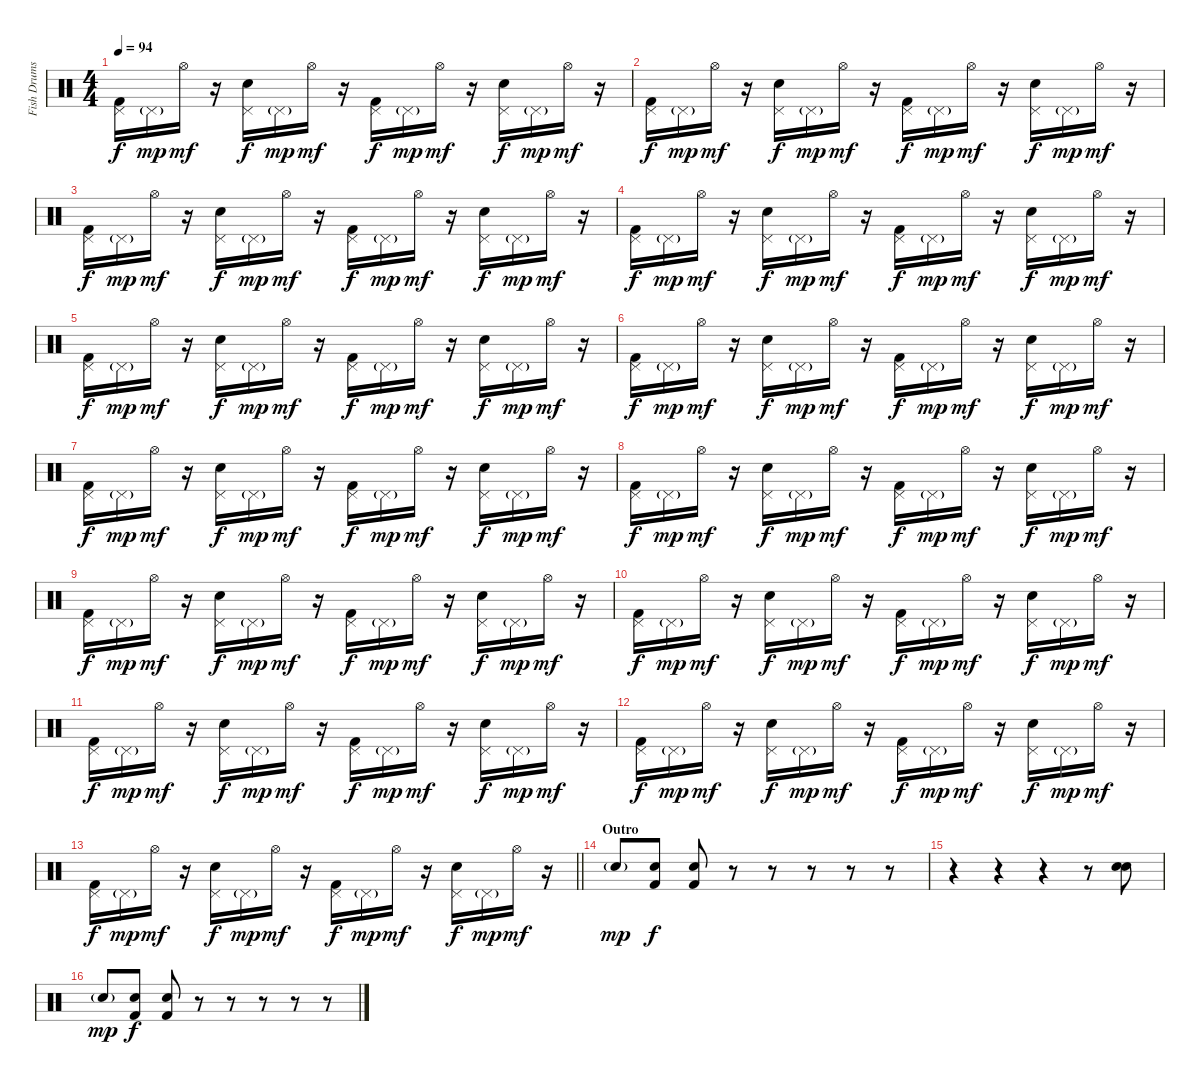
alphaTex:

\track ("Fish Drums" "Fish Drums") {instrument percussion}
\staff {score}
\articulation defaults
\ts (4 4)
\tempo 94
\clef neutral
\ks c
("Pedal Hi-Hat (hit)" "Kick (hit) 2").16{dy f} "Pedal Hi-Hat (hit)"{g}.16{dy mp} "Hi-Hat (open)".16{dy mf} r.16 ("Pedal Hi-Hat (hit)" "Snare (hit) 2").16{dy f} "Pedal Hi-Hat (hit)"{g}.16{dy mp} "Hi-Hat (open)".16{dy mf} r.16 ("Pedal Hi-Hat (hit)" "Kick (hit) 2").16{dy f} "Pedal Hi-Hat (hit)"{g}.16{dy mp} "Hi-Hat (open)".16{dy mf} r.16 ("Pedal Hi-Hat (hit)" "Snare (hit) 2").16{dy f} "Pedal Hi-Hat (hit)"{g}.16{dy mp} "Hi-Hat (open)".16{dy mf} r.16 |
("Pedal Hi-Hat (hit)" "Kick (hit) 2").16{dy f} "Pedal Hi-Hat (hit)"{g}.16{dy mp} "Hi-Hat (open)".16{dy mf} r.16 ("Pedal Hi-Hat (hit)" "Snare (hit) 2").16{dy f} "Pedal Hi-Hat (hit)"{g}.16{dy mp} "Hi-Hat (open)".16{dy mf} r.16 ("Pedal Hi-Hat (hit)" "Kick (hit) 2").16{dy f} "Pedal Hi-Hat (hit)"{g}.16{dy mp} "Hi-Hat (open)".16{dy mf} r.16 ("Pedal Hi-Hat (hit)" "Snare (hit) 2").16{dy f} "Pedal Hi-Hat (hit)"{g}.16{dy mp} "Hi-Hat (open)".16{dy mf} r.16 |
("Pedal Hi-Hat (hit)" "Kick (hit) 2").16{dy f} "Pedal Hi-Hat (hit)"{g}.16{dy mp} "Hi-Hat (open)".16{dy mf} r.16 ("Pedal Hi-Hat (hit)" "Snare (hit) 2").16{dy f} "Pedal Hi-Hat (hit)"{g}.16{dy mp} "Hi-Hat (open)".16{dy mf} r.16 ("Pedal Hi-Hat (hit)" "Kick (hit) 2").16{dy f} "Pedal Hi-Hat (hit)"{g}.16{dy mp} "Hi-Hat (open)".16{dy mf} r.16 ("Pedal Hi-Hat (hit)" "Snare (hit) 2").16{dy f} "Pedal Hi-Hat (hit)"{g}.16{dy mp} "Hi-Hat (open)".16{dy mf} r.16 |
("Pedal Hi-Hat (hit)" "Kick (hit) 2").16{dy f} "Pedal Hi-Hat (hit)"{g}.16{dy mp} "Hi-Hat (open)".16{dy mf} r.16 ("Pedal Hi-Hat (hit)" "Snare (hit) 2").16{dy f} "Pedal Hi-Hat (hit)"{g}.16{dy mp} "Hi-Hat (open)".16{dy mf} r.16 ("Pedal Hi-Hat (hit)" "Kick (hit) 2").16{dy f} "Pedal Hi-Hat (hit)"{g}.16{dy mp} "Hi-Hat (open)".16{dy mf} r.16 ("Pedal Hi-Hat (hit)" "Snare (hit) 2").16{dy f} "Pedal Hi-Hat (hit)"{g}.16{dy mp} "Hi-Hat (open)".16{dy mf} r.16 |
("Pedal Hi-Hat (hit)" "Kick (hit) 2").16{dy f} "Pedal Hi-Hat (hit)"{g}.16{dy mp} "Hi-Hat (open)".16{dy mf} r.16 ("Pedal Hi-Hat (hit)" "Snare (hit) 2").16{dy f} "Pedal Hi-Hat (hit)"{g}.16{dy mp} "Hi-Hat (open)".16{dy mf} r.16 ("Pedal Hi-Hat (hit)" "Kick (hit) 2").16{dy f} "Pedal Hi-Hat (hit)"{g}.16{dy mp} "Hi-Hat (open)".16{dy mf} r.16 ("Pedal Hi-Hat (hit)" "Snare (hit) 2").16{dy f} "Pedal Hi-Hat (hit)"{g}.16{dy mp} "Hi-Hat (open)".16{dy mf} r.16 |
("Pedal Hi-Hat (hit)" "Kick (hit) 2").16{dy f} "Pedal Hi-Hat (hit)"{g}.16{dy mp} "Hi-Hat (open)".16{dy mf} r.16 ("Pedal Hi-Hat (hit)" "Snare (hit) 2").16{dy f} "Pedal Hi-Hat (hit)"{g}.16{dy mp} "Hi-Hat (open)".16{dy mf} r.16 ("Pedal Hi-Hat (hit)" "Kick (hit) 2").16{dy f} "Pedal Hi-Hat (hit)"{g}.16{dy mp} "Hi-Hat (open)".16{dy mf} r.16 ("Pedal Hi-Hat (hit)" "Snare (hit) 2").16{dy f} "Pedal Hi-Hat (hit)"{g}.16{dy mp} "Hi-Hat (open)".16{dy mf} r.16 |
("Pedal Hi-Hat (hit)" "Kick (hit) 2").16{dy f} "Pedal Hi-Hat (hit)"{g}.16{dy mp} "Hi-Hat (open)".16{dy mf} r.16 ("Pedal Hi-Hat (hit)" "Snare (hit) 2").16{dy f} "Pedal Hi-Hat (hit)"{g}.16{dy mp} "Hi-Hat (open)".16{dy mf} r.16 ("Pedal Hi-Hat (hit)" "Kick (hit) 2").16{dy f} "Pedal Hi-Hat (hit)"{g}.16{dy mp} "Hi-Hat (open)".16{dy mf} r.16 ("Pedal Hi-Hat (hit)" "Snare (hit) 2").16{dy f} "Pedal Hi-Hat (hit)"{g}.16{dy mp} "Hi-Hat (open)".16{dy mf} r.16 |
("Pedal Hi-Hat (hit)" "Kick (hit) 2").16{dy f} "Pedal Hi-Hat (hit)"{g}.16{dy mp} "Hi-Hat (open)".16{dy mf} r.16 ("Pedal Hi-Hat (hit)" "Snare (hit) 2").16{dy f} "Pedal Hi-Hat (hit)"{g}.16{dy mp} "Hi-Hat (open)".16{dy mf} r.16 ("Pedal Hi-Hat (hit)" "Kick (hit) 2").16{dy f} "Pedal Hi-Hat (hit)"{g}.16{dy mp} "Hi-Hat (open)".16{dy mf} r.16 ("Pedal Hi-Hat (hit)" "Snare (hit) 2").16{dy f} "Pedal Hi-Hat (hit)"{g}.16{dy mp} "Hi-Hat (open)".16{dy mf} r.16 |
("Pedal Hi-Hat (hit)" "Kick (hit) 2").16{dy f} "Pedal Hi-Hat (hit)"{g}.16{dy mp} "Hi-Hat (open)".16{dy mf} r.16 ("Pedal Hi-Hat (hit)" "Snare (hit) 2").16{dy f} "Pedal Hi-Hat (hit)"{g}.16{dy mp} "Hi-Hat (open)".16{dy mf} r.16 ("Pedal Hi-Hat (hit)" "Kick (hit) 2").16{dy f} "Pedal Hi-Hat (hit)"{g}.16{dy mp} "Hi-Hat (open)".16{dy mf} r.16 ("Pedal Hi-Hat (hit)" "Snare (hit) 2").16{dy f} "Pedal Hi-Hat (hit)"{g}.16{dy mp} "Hi-Hat (open)".16{dy mf} r.16 |
("Pedal Hi-Hat (hit)" "Kick (hit) 2").16{dy f} "Pedal Hi-Hat (hit)"{g}.16{dy mp} "Hi-Hat (open)".16{dy mf} r.16 ("Pedal Hi-Hat (hit)" "Snare (hit) 2").16{dy f} "Pedal Hi-Hat (hit)"{g}.16{dy mp} "Hi-Hat (open)".16{dy mf} r.16 ("Pedal Hi-Hat (hit)" "Kick (hit) 2").16{dy f} "Pedal Hi-Hat (hit)"{g}.16{dy mp} "Hi-Hat (open)".16{dy mf} r.16 ("Pedal Hi-Hat (hit)" "Snare (hit) 2").16{dy f} "Pedal Hi-Hat (hit)"{g}.16{dy mp} "Hi-Hat (open)".16{dy mf} r.16 |
("Pedal Hi-Hat (hit)" "Kick (hit) 2").16{dy f} "Pedal Hi-Hat (hit)"{g}.16{dy mp} "Hi-Hat (open)".16{dy mf} r.16 ("Pedal Hi-Hat (hit)" "Snare (hit) 2").16{dy f} "Pedal Hi-Hat (hit)"{g}.16{dy mp} "Hi-Hat (open)".16{dy mf} r.16 ("Pedal Hi-Hat (hit)" "Kick (hit) 2").16{dy f} "Pedal Hi-Hat (hit)"{g}.16{dy mp} "Hi-Hat (open)".16{dy mf} r.16 ("Pedal Hi-Hat (hit)" "Snare (hit) 2").16{dy f} "Pedal Hi-Hat (hit)"{g}.16{dy mp} "Hi-Hat (open)".16{dy mf} r.16 |
("Pedal Hi-Hat (hit)" "Kick (hit) 2").16{dy f} "Pedal Hi-Hat (hit)"{g}.16{dy mp} "Hi-Hat (open)".16{dy mf} r.16 ("Pedal Hi-Hat (hit)" "Snare (hit) 2").16{dy f} "Pedal Hi-Hat (hit)"{g}.16{dy mp} "Hi-Hat (open)".16{dy mf} r.16 ("Pedal Hi-Hat (hit)" "Kick (hit) 2").16{dy f} "Pedal Hi-Hat (hit)"{g}.16{dy mp} "Hi-Hat (open)".16{dy mf} r.16 ("Pedal Hi-Hat (hit)" "Snare (hit) 2").16{dy f} "Pedal Hi-Hat (hit)"{g}.16{dy mp} "Hi-Hat (open)".16{dy mf} r.16 |
\barLineRight lightlight
("Pedal Hi-Hat (hit)" "Kick (hit) 2").16{dy f} "Pedal Hi-Hat (hit)"{g}.16{dy mp} "Hi-Hat (open)".16{dy mf} r.16 ("Pedal Hi-Hat (hit)" "Snare (hit) 2").16{dy f} "Pedal Hi-Hat (hit)"{g}.16{dy mp} "Hi-Hat (open)".16{dy mf} r.16 ("Pedal Hi-Hat (hit)" "Kick (hit) 2").16{dy f} "Pedal Hi-Hat (hit)"{g}.16{dy mp} "Hi-Hat (open)".16{dy mf} r.16 ("Pedal Hi-Hat (hit)" "Snare (hit) 2").16{dy f} "Pedal Hi-Hat (hit)"{g}.16{dy mp} "Hi-Hat (open)".16{dy mf} r.16 |
\section ("" "Outro")
"Electric Snare (hit)"{g}.8{dy mp} ("Snare (hit) 2" "Kick (hit) 2").8{dy f} ("Snare (hit) 2" "Kick (hit) 2").8 r.8 r.8 r.8 r.8 r.8 |
r.4 r.4 r.4 r.8 ("Snare (hit) 2" "Electric Snare (hit)").8 |
"Electric Snare (hit)"{g}.8{dy mp} ("Snare (hit) 2" "Kick (hit) 2").8{dy f} ("Snare (hit) 2" "Kick (hit) 2").8 r.8 r.8 r.8 r.8 r.8
